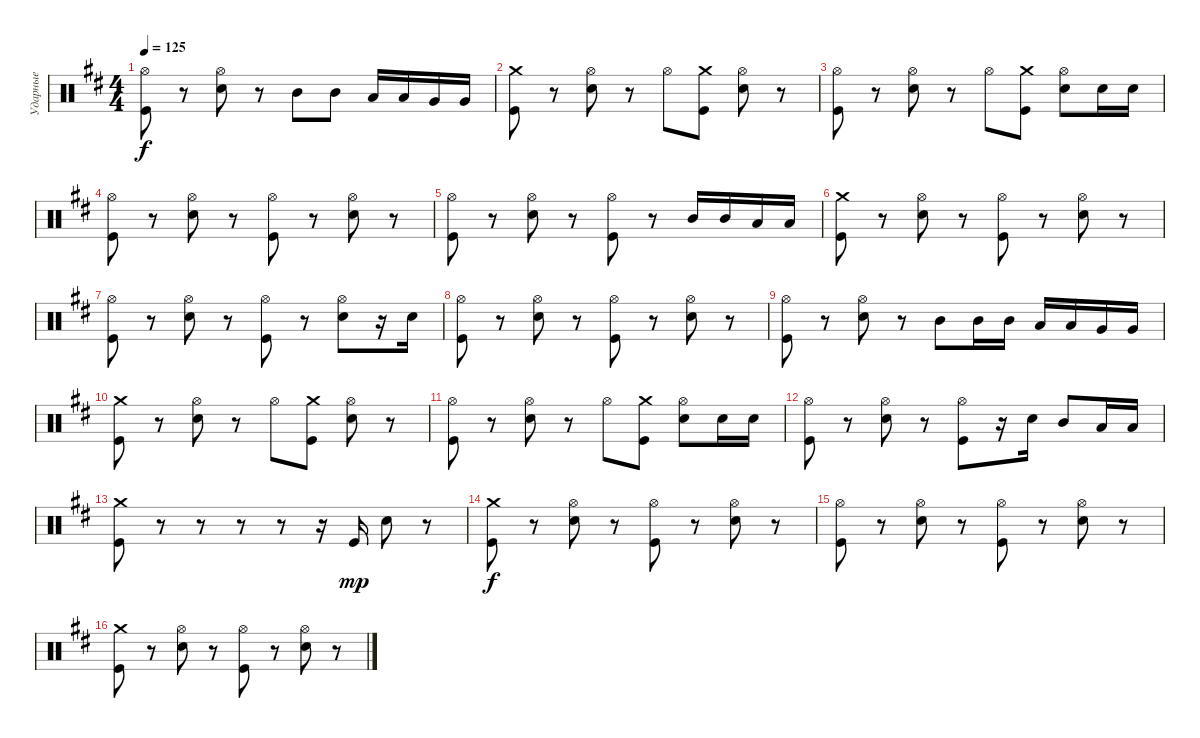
\track ("Ударные" "Ударные") {instrument percussion}
\staff {score}
\articulation defaults
\ts (4 4)
\tempo 125
\clef neutral
\ks d
("Hi-Hat (open)" "Kick (hit)").8{dy f} r.8 ("Hi-Hat (open)" "Electric Snare (hit)").8 r.8 "Mid Tom (hit)".8 "Mid Tom (hit)".8 "Low Tom (hit)".16 "Low Tom (hit)".16 "Very Low Tom (hit)".16 "Very Low Tom (hit)".16 |
("Crash medium (hit)" "Kick (hit)").8 r.8 ("Hi-Hat (open)" "Electric Snare (hit)").8 r.8 "Hi-Hat (open)".8 ("Crash medium (hit)" "Kick (hit)").8 ("Hi-Hat (open)" "Electric Snare (hit)").8 r.8 |
("Hi-Hat (open)" "Kick (hit)").8 r.8 ("Hi-Hat (open)" "Electric Snare (hit)").8 r.8 "Hi-Hat (open)".8 ("Crash medium (hit)" "Kick (hit)").8 ("Hi-Hat (open)" "Electric Snare (hit)").8 "Electric Snare (hit)".16 "Electric Snare (hit)".16 |
("Hi-Hat (open)" "Kick (hit)").8 r.8 ("Hi-Hat (open)" "Electric Snare (hit)").8 r.8 ("Hi-Hat (open)" "Kick (hit)").8 r.8 ("Hi-Hat (open)" "Electric Snare (hit)").8 r.8 |
("Hi-Hat (open)" "Kick (hit)").8 r.8 ("Hi-Hat (open)" "Electric Snare (hit)").8 r.8 ("Hi-Hat (open)" "Kick (hit)").8 r.8 "Mid Tom (hit)".16 "Mid Tom (hit)".16 "Low Tom (hit)".16 "Low Tom (hit)".16 |
("Crash medium (hit)" "Kick (hit)").8 r.8 ("Hi-Hat (open)" "Electric Snare (hit)").8 r.8 ("Hi-Hat (open)" "Kick (hit)").8 r.8 ("Hi-Hat (open)" "Electric Snare (hit)").8 r.8 |
("Hi-Hat (open)" "Kick (hit)").8 r.8 ("Hi-Hat (open)" "Electric Snare (hit)").8 r.8 ("Hi-Hat (open)" "Kick (hit)").8 r.8 ("Hi-Hat (open)" "Electric Snare (hit)").8 r.16 "Electric Snare (hit)".16 |
("Hi-Hat (open)" "Kick (hit)").8 r.8 ("Hi-Hat (open)" "Electric Snare (hit)").8 r.8 ("Hi-Hat (open)" "Kick (hit)").8 r.8 ("Hi-Hat (open)" "Electric Snare (hit)").8 r.8 |
("Hi-Hat (open)" "Kick (hit)").8 r.8 ("Hi-Hat (open)" "Electric Snare (hit)").8 r.8 "Mid Tom (hit)".8 "Mid Tom (hit)".16 "Mid Tom (hit)".16 "Low Tom (hit)".16 "Low Tom (hit)".16 "Very Low Tom (hit)".16 "Very Low Tom (hit)".16 |
("Crash medium (hit)" "Kick (hit)").8 r.8 ("Hi-Hat (open)" "Electric Snare (hit)").8 r.8 "Hi-Hat (open)".8 ("Crash medium (hit)" "Kick (hit)").8 ("Hi-Hat (open)" "Electric Snare (hit)").8 r.8 |
("Hi-Hat (open)" "Kick (hit)").8 r.8 ("Hi-Hat (open)" "Electric Snare (hit)").8 r.8 "Hi-Hat (open)".8 ("Crash medium (hit)" "Kick (hit)").8 ("Hi-Hat (open)" "Electric Snare (hit)").8 "Electric Snare (hit)".16 "Electric Snare (hit)".16 |
("Hi-Hat (open)" "Kick (hit)").8 r.8 ("Hi-Hat (open)" "Electric Snare (hit)").8 r.8 ("Hi-Hat (open)" "Kick (hit)").8 r.16 "Electric Snare (hit)".16 "Mid Tom (hit)".8 "Low Tom (hit)".16 "Low Tom (hit)".16 |
("Crash medium (hit)" "Kick (hit)").8 r.8 r.8 r.8 r.8 r.16 "Kick (hit)".16{dy mp} "Electric Snare (hit)".8 r.8 |
("Crash medium (hit)" "Kick (hit)").8{dy f} r.8 ("Hi-Hat (open)" "Electric Snare (hit)").8 r.8 ("Hi-Hat (open)" "Kick (hit)").8 r.8 ("Hi-Hat (open)" "Electric Snare (hit)").8 r.8 |
("Hi-Hat (open)" "Kick (hit)").8 r.8 ("Hi-Hat (open)" "Electric Snare (hit)").8 r.8 ("Hi-Hat (open)" "Kick (hit)").8 r.8 ("Hi-Hat (open)" "Electric Snare (hit)").8 r.8 |
("Crash medium (hit)" "Kick (hit)").8 r.8 ("Hi-Hat (open)" "Electric Snare (hit)").8 r.8 ("Hi-Hat (open)" "Kick (hit)").8 r.8 ("Hi-Hat (open)" "Electric Snare (hit)").8 r.8
